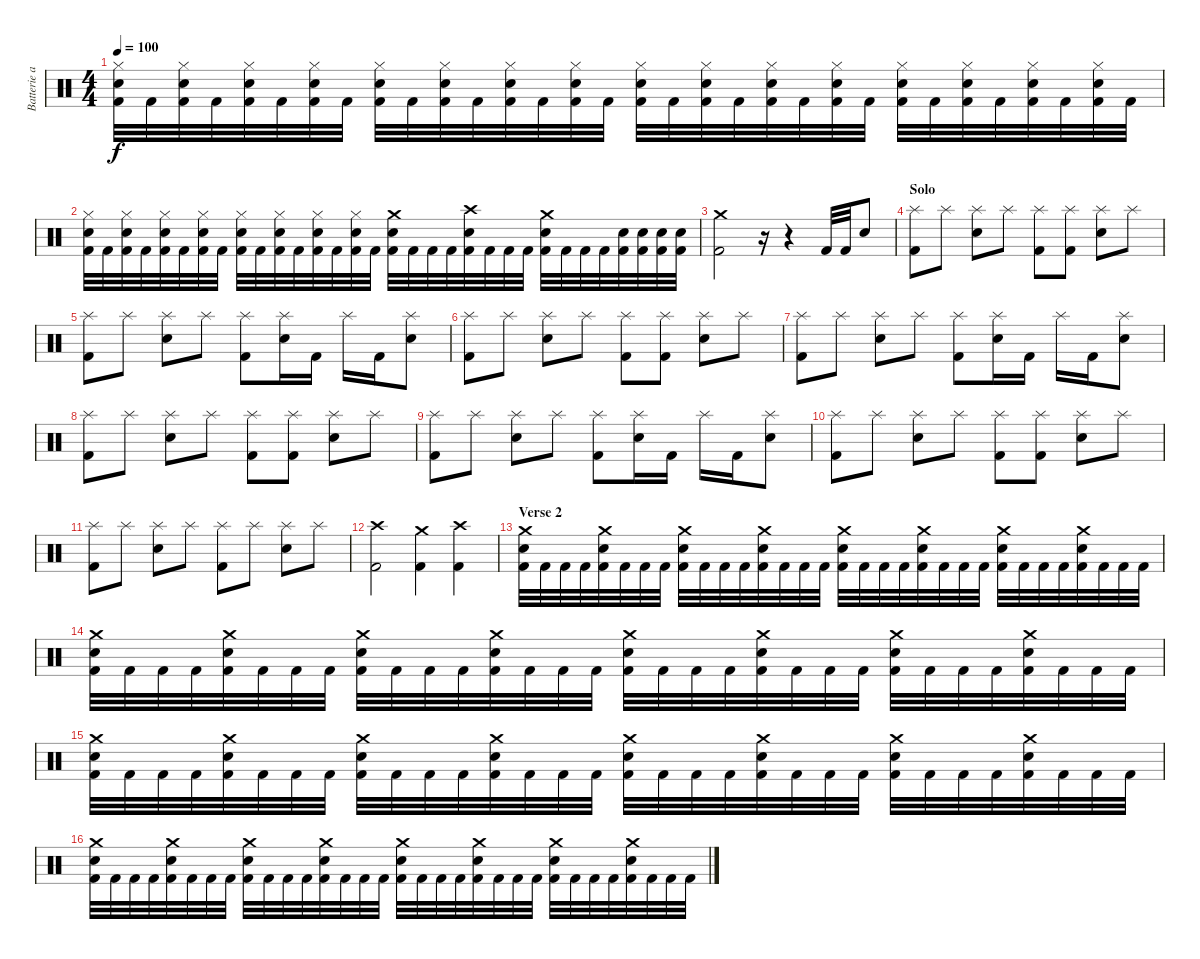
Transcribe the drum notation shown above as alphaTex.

\track ("Batterie and Effects" "Batterie a") {instrument percussion}
\staff {score}
\articulation defaults
\ts (4 4)
\tempo 100
\clef neutral
\ks c
("Hi-Hat (closed)" "Electric Snare (hit)" "Kick (hit) 2").32{dy f} "Kick (hit) 2".32 ("Hi-Hat (closed)" "Electric Snare (hit)" "Kick (hit) 2").32 "Kick (hit) 2".32 ("Hi-Hat (closed)" "Electric Snare (hit)" "Kick (hit) 2").32 "Kick (hit) 2".32 ("Hi-Hat (closed)" "Electric Snare (hit)" "Kick (hit) 2").32 "Kick (hit) 2".32 ("Hi-Hat (closed)" "Electric Snare (hit)" "Kick (hit) 2").32 "Kick (hit) 2".32 ("Hi-Hat (closed)" "Electric Snare (hit)" "Kick (hit) 2").32 "Kick (hit) 2".32 ("Hi-Hat (closed)" "Electric Snare (hit)" "Kick (hit) 2").32 "Kick (hit) 2".32 ("Hi-Hat (closed)" "Electric Snare (hit)" "Kick (hit) 2").32 "Kick (hit) 2".32 ("Hi-Hat (closed)" "Electric Snare (hit)" "Kick (hit) 2").32 "Kick (hit) 2".32 ("Hi-Hat (closed)" "Electric Snare (hit)" "Kick (hit) 2").32 "Kick (hit) 2".32 ("Hi-Hat (closed)" "Electric Snare (hit)" "Kick (hit) 2").32 "Kick (hit) 2".32 ("Hi-Hat (closed)" "Electric Snare (hit)" "Kick (hit) 2").32 "Kick (hit) 2".32 ("Hi-Hat (closed)" "Electric Snare (hit)" "Kick (hit) 2").32 "Kick (hit) 2".32 ("Hi-Hat (closed)" "Electric Snare (hit)" "Kick (hit) 2").32 "Kick (hit) 2".32 ("Hi-Hat (closed)" "Electric Snare (hit)" "Kick (hit) 2").32 "Kick (hit) 2".32 ("Hi-Hat (closed)" "Electric Snare (hit)" "Kick (hit) 2").32 "Kick (hit) 2".32 |
("Hi-Hat (closed)" "Electric Snare (hit)" "Kick (hit) 2").32 "Kick (hit) 2".32 ("Hi-Hat (closed)" "Electric Snare (hit)" "Kick (hit) 2").32 "Kick (hit) 2".32 ("Hi-Hat (closed)" "Electric Snare (hit)" "Kick (hit) 2").32 "Kick (hit) 2".32 ("Hi-Hat (closed)" "Electric Snare (hit)" "Kick (hit) 2").32 "Kick (hit) 2".32 ("Hi-Hat (closed)" "Electric Snare (hit)" "Kick (hit) 2").32 "Kick (hit) 2".32 ("Hi-Hat (closed)" "Electric Snare (hit)" "Kick (hit) 2").32 "Kick (hit) 2".32 ("Hi-Hat (closed)" "Electric Snare (hit)" "Kick (hit) 2").32 "Kick (hit) 2".32 ("Hi-Hat (closed)" "Electric Snare (hit)" "Kick (hit) 2").32 "Kick (hit) 2".32 ("Crash medium (hit)" "Electric Snare (hit)" "Kick (hit) 2").32 "Kick (hit) 2".32 "Kick (hit) 2".32 "Kick (hit) 2".32 ("Crash high (hit)" "Electric Snare (hit)" "Kick (hit) 2").32 "Kick (hit) 2".32 "Kick (hit) 2".32 "Kick (hit) 2".32 ("Crash medium (hit)" "Electric Snare (hit)" "Kick (hit) 2").32 "Kick (hit) 2".32 "Kick (hit) 2".32 "Kick (hit) 2".32 ("Electric Snare (hit)" "Kick (hit) 2").32 ("Electric Snare (hit)" "Kick (hit) 2").32 ("Electric Snare (hit)" "Kick (hit) 2").32 ("Electric Snare (hit)" "Kick (hit) 2").32 |
("Crash medium (hit)" "Kick (hit) 2").2 r.16 r.4 "Kick (hit) 2".32 "Kick (hit) 2".32 "Electric Snare (hit)".8 |
\section ("" "Solo")
("Splash (hit)" "Kick (hit) 2").8 "Splash (hit)".8 ("Splash (hit)" "Electric Snare (hit)").8 "Splash (hit)".8 ("Splash (hit)" "Kick (hit) 2").8 ("Splash (hit)" "Kick (hit) 2").8 ("Splash (hit)" "Electric Snare (hit)").8 "Splash (hit)".8 |
("Splash (hit)" "Kick (hit) 2").8 "Splash (hit)".8 ("Splash (hit)" "Electric Snare (hit)").8 "Splash (hit)".8 ("Splash (hit)" "Kick (hit) 2").8 ("Splash (hit)" "Electric Snare (hit)").16 "Kick (hit) 2".16 "Splash (hit)".16 "Kick (hit) 2".16 ("Splash (hit)" "Electric Snare (hit)").8 |
("Splash (hit)" "Kick (hit) 2").8 "Splash (hit)".8 ("Splash (hit)" "Electric Snare (hit)").8 "Splash (hit)".8 ("Splash (hit)" "Kick (hit) 2").8 ("Splash (hit)" "Kick (hit) 2").8 ("Splash (hit)" "Electric Snare (hit)").8 "Splash (hit)".8 |
("Splash (hit)" "Kick (hit) 2").8 "Splash (hit)".8 ("Splash (hit)" "Electric Snare (hit)").8 "Splash (hit)".8 ("Splash (hit)" "Kick (hit) 2").8 ("Splash (hit)" "Electric Snare (hit)").16 "Kick (hit) 2".16 "Splash (hit)".16 "Kick (hit) 2".16 ("Splash (hit)" "Electric Snare (hit)").8 |
("Splash (hit)" "Kick (hit) 2").8 "Splash (hit)".8 ("Splash (hit)" "Electric Snare (hit)").8 "Splash (hit)".8 ("Splash (hit)" "Kick (hit) 2").8 ("Splash (hit)" "Kick (hit) 2").8 ("Splash (hit)" "Electric Snare (hit)").8 "Splash (hit)".8 |
("Splash (hit)" "Kick (hit) 2").8 "Splash (hit)".8 ("Splash (hit)" "Electric Snare (hit)").8 "Splash (hit)".8 ("Splash (hit)" "Kick (hit) 2").8 ("Splash (hit)" "Electric Snare (hit)").16 "Kick (hit) 2".16 "Splash (hit)".16 "Kick (hit) 2".16 ("Splash (hit)" "Electric Snare (hit)").8 |
("Splash (hit)" "Kick (hit) 2").8 "Splash (hit)".8 ("Splash (hit)" "Electric Snare (hit)").8 "Splash (hit)".8 ("Splash (hit)" "Kick (hit) 2").8 ("Splash (hit)" "Kick (hit) 2").8 ("Splash (hit)" "Electric Snare (hit)").8 "Splash (hit)".8 |
("Splash (hit)" "Kick (hit) 2").8 "Splash (hit)".8 ("Splash (hit)" "Electric Snare (hit)").8 "Splash (hit)".8 ("Splash (hit)" "Kick (hit) 2").8 "Splash (hit)".8 ("Splash (hit)" "Electric Snare (hit)").8 "Splash (hit)".8 |
("Crash high (hit)" "Kick (hit) 2").2 ("Crash medium (hit)" "Kick (hit) 2").4 ("Crash high (hit)" "Kick (hit) 2").4 |
\section ("" "Verse 2")
("Crash medium (hit)" "Electric Snare (hit)" "Kick (hit) 2").32 "Kick (hit) 2".32 "Kick (hit) 2".32 "Kick (hit) 2".32 ("Crash medium (hit)" "Electric Snare (hit)" "Kick (hit) 2").32 "Kick (hit) 2".32 "Kick (hit) 2".32 "Kick (hit) 2".32 ("Crash medium (hit)" "Electric Snare (hit)" "Kick (hit) 2").32 "Kick (hit) 2".32 "Kick (hit) 2".32 "Kick (hit) 2".32 ("Crash medium (hit)" "Electric Snare (hit)" "Kick (hit) 2").32 "Kick (hit) 2".32 "Kick (hit) 2".32 "Kick (hit) 2".32 ("Crash medium (hit)" "Electric Snare (hit)" "Kick (hit) 2").32 "Kick (hit) 2".32 "Kick (hit) 2".32 "Kick (hit) 2".32 ("Crash medium (hit)" "Electric Snare (hit)" "Kick (hit) 2").32 "Kick (hit) 2".32 "Kick (hit) 2".32 "Kick (hit) 2".32 ("Crash medium (hit)" "Electric Snare (hit)" "Kick (hit) 2").32 "Kick (hit) 2".32 "Kick (hit) 2".32 "Kick (hit) 2".32 ("Crash medium (hit)" "Electric Snare (hit)" "Kick (hit) 2").32 "Kick (hit) 2".32 "Kick (hit) 2".32 "Kick (hit) 2".32 |
("Crash medium (hit)" "Electric Snare (hit)" "Kick (hit) 2").32 "Kick (hit) 2".32 "Kick (hit) 2".32 "Kick (hit) 2".32 ("Crash medium (hit)" "Electric Snare (hit)" "Kick (hit) 2").32 "Kick (hit) 2".32 "Kick (hit) 2".32 "Kick (hit) 2".32 ("Crash medium (hit)" "Electric Snare (hit)" "Kick (hit) 2").32 "Kick (hit) 2".32 "Kick (hit) 2".32 "Kick (hit) 2".32 ("Crash medium (hit)" "Electric Snare (hit)" "Kick (hit) 2").32 "Kick (hit) 2".32 "Kick (hit) 2".32 "Kick (hit) 2".32 ("Crash medium (hit)" "Electric Snare (hit)" "Kick (hit) 2").32 "Kick (hit) 2".32 "Kick (hit) 2".32 "Kick (hit) 2".32 ("Crash medium (hit)" "Electric Snare (hit)" "Kick (hit) 2").32 "Kick (hit) 2".32 "Kick (hit) 2".32 "Kick (hit) 2".32 ("Crash medium (hit)" "Electric Snare (hit)" "Kick (hit) 2").32 "Kick (hit) 2".32 "Kick (hit) 2".32 "Kick (hit) 2".32 ("Crash medium (hit)" "Electric Snare (hit)" "Kick (hit) 2").32 "Kick (hit) 2".32 "Kick (hit) 2".32 "Kick (hit) 2".32 |
("Crash medium (hit)" "Electric Snare (hit)" "Kick (hit) 2").32 "Kick (hit) 2".32 "Kick (hit) 2".32 "Kick (hit) 2".32 ("Crash medium (hit)" "Electric Snare (hit)" "Kick (hit) 2").32 "Kick (hit) 2".32 "Kick (hit) 2".32 "Kick (hit) 2".32 ("Crash medium (hit)" "Electric Snare (hit)" "Kick (hit) 2").32 "Kick (hit) 2".32 "Kick (hit) 2".32 "Kick (hit) 2".32 ("Crash medium (hit)" "Electric Snare (hit)" "Kick (hit) 2").32 "Kick (hit) 2".32 "Kick (hit) 2".32 "Kick (hit) 2".32 ("Crash medium (hit)" "Electric Snare (hit)" "Kick (hit) 2").32 "Kick (hit) 2".32 "Kick (hit) 2".32 "Kick (hit) 2".32 ("Crash medium (hit)" "Electric Snare (hit)" "Kick (hit) 2").32 "Kick (hit) 2".32 "Kick (hit) 2".32 "Kick (hit) 2".32 ("Crash medium (hit)" "Electric Snare (hit)" "Kick (hit) 2").32 "Kick (hit) 2".32 "Kick (hit) 2".32 "Kick (hit) 2".32 ("Crash medium (hit)" "Electric Snare (hit)" "Kick (hit) 2").32 "Kick (hit) 2".32 "Kick (hit) 2".32 "Kick (hit) 2".32 |
("Crash medium (hit)" "Electric Snare (hit)" "Kick (hit) 2").32 "Kick (hit) 2".32 "Kick (hit) 2".32 "Kick (hit) 2".32 ("Crash medium (hit)" "Electric Snare (hit)" "Kick (hit) 2").32 "Kick (hit) 2".32 "Kick (hit) 2".32 "Kick (hit) 2".32 ("Crash medium (hit)" "Electric Snare (hit)" "Kick (hit) 2").32 "Kick (hit) 2".32 "Kick (hit) 2".32 "Kick (hit) 2".32 ("Crash medium (hit)" "Electric Snare (hit)" "Kick (hit) 2").32 "Kick (hit) 2".32 "Kick (hit) 2".32 "Kick (hit) 2".32 ("Crash medium (hit)" "Electric Snare (hit)" "Kick (hit) 2").32 "Kick (hit) 2".32 "Kick (hit) 2".32 "Kick (hit) 2".32 ("Crash medium (hit)" "Electric Snare (hit)" "Kick (hit) 2").32 "Kick (hit) 2".32 "Kick (hit) 2".32 "Kick (hit) 2".32 ("Crash medium (hit)" "Electric Snare (hit)" "Kick (hit) 2").32 "Kick (hit) 2".32 "Kick (hit) 2".32 "Kick (hit) 2".32 ("Crash medium (hit)" "Electric Snare (hit)" "Kick (hit) 2").32 "Kick (hit) 2".32 "Kick (hit) 2".32 "Kick (hit) 2".32
